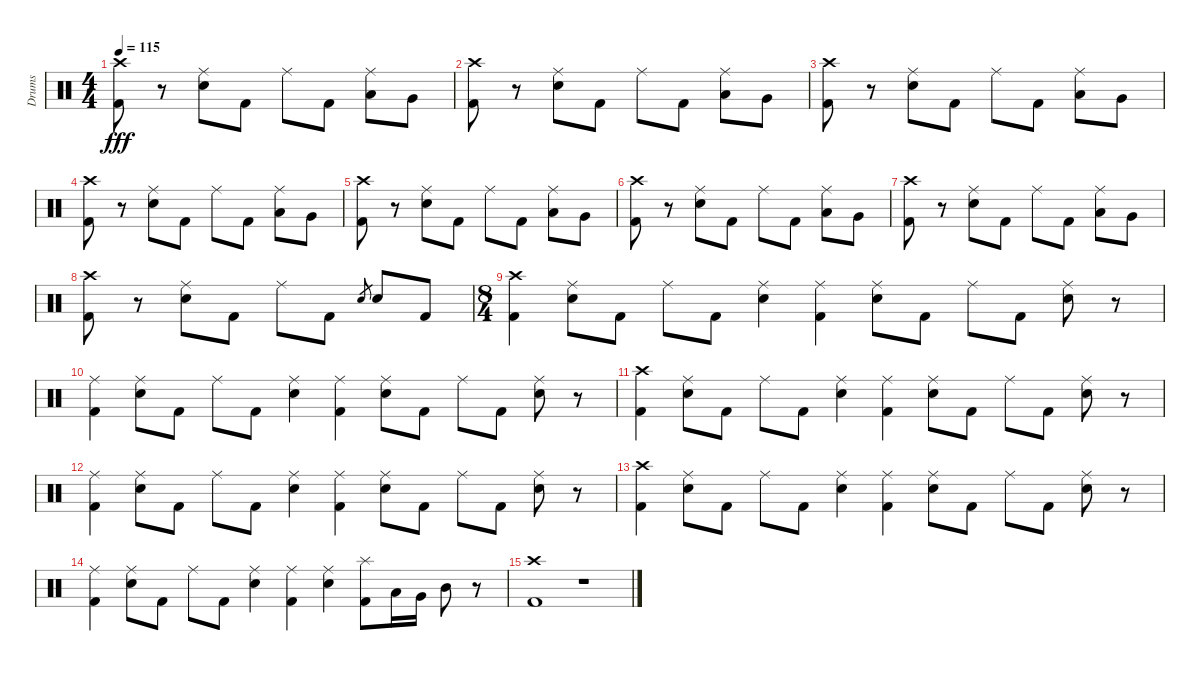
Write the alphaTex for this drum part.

\track ("Drums" "Drums") {instrument percussion}
\staff {score}
\articulation defaults
\ts (4 4)
\tempo 115
\clef neutral
\ks c
("Crash high (hit)" "Kick (hit) 2").8{dy fff} r.8 ("Ride (middle)" "Electric Snare (hit)").8 "Kick (hit) 2".8 "Ride (middle)".8 "Kick (hit) 2".8 ("Ride (middle)" "Low Tom (hit)").8 "Very Low Tom (hit)".8 |
("Crash high (hit)" "Kick (hit) 2").8 r.8 ("Ride (middle)" "Electric Snare (hit)").8 "Kick (hit) 2".8 "Ride (middle)".8 "Kick (hit) 2".8 ("Ride (middle)" "Low Tom (hit)").8 "Very Low Tom (hit)".8 |
("Crash high (hit)" "Kick (hit) 2").8 r.8 ("Ride (middle)" "Electric Snare (hit)").8 "Kick (hit) 2".8 "Ride (middle)".8 "Kick (hit) 2".8 ("Ride (middle)" "Low Tom (hit)").8 "Very Low Tom (hit)".8 |
("Crash high (hit)" "Kick (hit) 2").8 r.8 ("Ride (middle)" "Electric Snare (hit)").8 "Kick (hit) 2".8 "Ride (middle)".8 "Kick (hit) 2".8 ("Ride (middle)" "Low Tom (hit)").8 "Very Low Tom (hit)".8 |
("Crash high (hit)" "Kick (hit) 2").8 r.8 ("Ride (middle)" "Electric Snare (hit)").8 "Kick (hit) 2".8 "Ride (middle)".8 "Kick (hit) 2".8 ("Ride (middle)" "Low Tom (hit)").8 "Very Low Tom (hit)".8 |
("Crash high (hit)" "Kick (hit) 2").8 r.8 ("Ride (middle)" "Electric Snare (hit)").8 "Kick (hit) 2".8 "Ride (middle)".8 "Kick (hit) 2".8 ("Ride (middle)" "Low Tom (hit)").8 "Very Low Tom (hit)".8 |
("Crash high (hit)" "Kick (hit) 2").8 r.8 ("Ride (middle)" "Electric Snare (hit)").8 "Kick (hit) 2".8 "Ride (middle)".8 "Kick (hit) 2".8 ("Ride (middle)" "Low Tom (hit)").8 "Very Low Tom (hit)".8 |
("Crash high (hit)" "Kick (hit) 2").8 r.8 ("Ride (middle)" "Electric Snare (hit)").8 "Kick (hit) 2".8 "Ride (middle)".8 "Kick (hit) 2".8 "Electric Snare (hit)".8{gr} "Electric Snare (hit)".8 "Kick (hit) 2".8 |
\ts (8 4)
("Crash high (hit)" "Kick (hit) 2").4 ("Ride (middle)" "Electric Snare (hit)").8 "Kick (hit) 2".8 "Ride (middle)".8 "Kick (hit) 2".8 ("Ride (middle)" "Electric Snare (hit)").4 ("Ride (middle)" "Kick (hit) 2").4 ("Ride (middle)" "Electric Snare (hit)").8 "Kick (hit) 2".8 "Ride (middle)".8 "Kick (hit) 2".8 ("Ride (middle)" "Electric Snare (hit)").8 r.8 |
("Ride (middle)" "Kick (hit) 2").4 ("Ride (middle)" "Electric Snare (hit)").8 "Kick (hit) 2".8 "Ride (middle)".8 "Kick (hit) 2".8 ("Ride (middle)" "Electric Snare (hit)").4 ("Ride (middle)" "Kick (hit) 2").4 ("Ride (middle)" "Electric Snare (hit)").8 "Kick (hit) 2".8 "Ride (middle)".8 "Kick (hit) 2".8 ("Ride (middle)" "Electric Snare (hit)").8 r.8 |
("Crash high (hit)" "Kick (hit) 2").4 ("Ride (middle)" "Electric Snare (hit)").8 "Kick (hit) 2".8 "Ride (middle)".8 "Kick (hit) 2".8 ("Ride (middle)" "Electric Snare (hit)").4 ("Ride (middle)" "Kick (hit) 2").4 ("Ride (middle)" "Electric Snare (hit)").8 "Kick (hit) 2".8 "Ride (middle)".8 "Kick (hit) 2".8 ("Ride (middle)" "Electric Snare (hit)").8 r.8 |
("Ride (middle)" "Kick (hit) 2").4 ("Ride (middle)" "Electric Snare (hit)").8 "Kick (hit) 2".8 "Ride (middle)".8 "Kick (hit) 2".8 ("Ride (middle)" "Electric Snare (hit)").4 ("Ride (middle)" "Kick (hit) 2").4 ("Ride (middle)" "Electric Snare (hit)").8 "Kick (hit) 2".8 "Ride (middle)".8 "Kick (hit) 2".8 ("Ride (middle)" "Electric Snare (hit)").8 r.8 |
("Crash high (hit)" "Kick (hit) 2").4 ("Ride (middle)" "Electric Snare (hit)").8 "Kick (hit) 2".8 "Ride (middle)".8 "Kick (hit) 2".8 ("Ride (middle)" "Electric Snare (hit)").4 ("Ride (middle)" "Kick (hit) 2").4 ("Ride (middle)" "Electric Snare (hit)").8 "Kick (hit) 2".8 "Ride (middle)".8 "Kick (hit) 2".8 ("Ride (middle)" "Electric Snare (hit)").8 r.8 |
("Ride (middle)" "Kick (hit) 2").4 ("Ride (middle)" "Electric Snare (hit)").8 "Kick (hit) 2".8 "Ride (middle)".8 "Kick (hit) 2".8 ("Ride (middle)" "Electric Snare (hit)").4 ("Ride (middle)" "Kick (hit) 2").4 ("Ride (middle)" "Electric Snare (hit)").4 ("Splash (hit)" "Kick (hit) 2").8 "Low Tom (hit)".16 "Very Low Tom (hit)".16 "Mid Tom (hit)".8 r.8 |
("Crash high (hit)" "Kick (hit) 2").1 r.1
